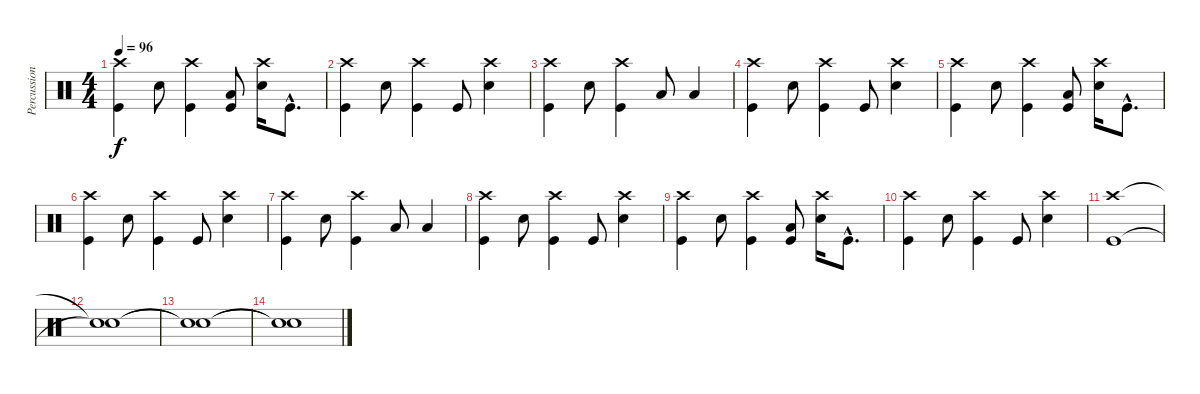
\track ("Percussion" "Percussion") {instrument percussion}
\staff {score}
\articulation defaults
\ts (4 4)
\tempo 96
\clef neutral
\ks c
("Crash high (hit)" "Kick (hit)").4{dy f} "Electric Snare (hit)".8 ("Crash high (hit)" "Kick (hit)").4 ("Low Tom (hit)" "Kick (hit)").8 ("Crash high (hit)" "Electric Snare (hit)").16 "Kick (hit)"{hac}.8{d} |
("Crash high (hit)" "Kick (hit)").4 "Electric Snare (hit)".8 ("Crash high (hit)" "Kick (hit)").4 "Kick (hit)".8 ("Crash high (hit)" "Electric Snare (hit)").4 |
("Crash high (hit)" "Kick (hit)").4 "Electric Snare (hit)".8 ("Crash high (hit)" "Kick (hit)").4 "Low Tom (hit)".8 "Low Tom (hit)".4 |
("Crash high (hit)" "Kick (hit)").4 "Electric Snare (hit)".8 ("Crash high (hit)" "Kick (hit)").4 "Kick (hit)".8 ("Crash high (hit)" "Electric Snare (hit)").4 |
("Crash high (hit)" "Kick (hit)").4 "Electric Snare (hit)".8 ("Crash high (hit)" "Kick (hit)").4 ("Low Tom (hit)" "Kick (hit)").8 ("Crash high (hit)" "Electric Snare (hit)").16 "Kick (hit)"{hac}.8{d} |
("Crash high (hit)" "Kick (hit)").4 "Electric Snare (hit)".8 ("Crash high (hit)" "Kick (hit)").4 "Kick (hit)".8 ("Crash high (hit)" "Electric Snare (hit)").4 |
("Crash high (hit)" "Kick (hit)").4 "Electric Snare (hit)".8 ("Crash high (hit)" "Kick (hit)").4 "Low Tom (hit)".8 "Low Tom (hit)".4 |
("Crash high (hit)" "Kick (hit)").4 "Electric Snare (hit)".8 ("Crash high (hit)" "Kick (hit)").4 "Kick (hit)".8 ("Crash high (hit)" "Electric Snare (hit)").4 |
("Crash high (hit)" "Kick (hit)").4 "Electric Snare (hit)".8 ("Crash high (hit)" "Kick (hit)").4 ("Low Tom (hit)" "Kick (hit)").8 ("Crash high (hit)" "Electric Snare (hit)").16 "Kick (hit)"{hac}.8{d} |
("Crash high (hit)" "Kick (hit)").4 "Electric Snare (hit)".8 ("Crash high (hit)" "Kick (hit)").4 "Kick (hit)".8 ("Crash high (hit)" "Electric Snare (hit)").4 |
("Crash high (hit)" "Kick (hit)").1 |
("Snare (hit)"{t} "Snare (hit)"{t}).1 |
("Snare (hit)"{t} "Snare (hit)"{t}).1 |
("Snare (hit)"{t} "Snare (hit)"{t}).1
